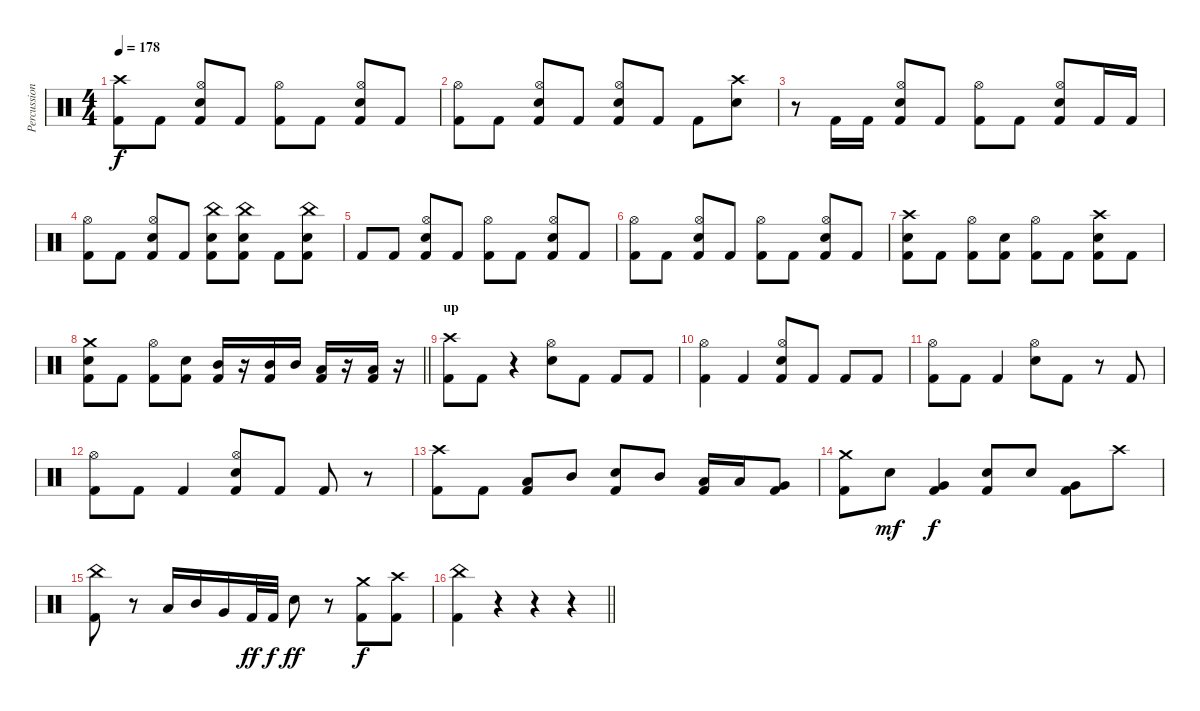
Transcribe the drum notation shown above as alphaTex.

\track ("Percussion" "Percussion") {instrument percussion}
\staff {score}
\articulation defaults
\ts (4 4)
\tempo 178
\clef neutral
\ks c
("Crash high (hit)" "Kick (hit) 2").8{dy f} "Kick (hit) 2".8 ("Hi-Hat (open)" "Electric Snare (hit)" "Kick (hit) 2").8 "Kick (hit) 2".8 ("Hi-Hat (open)" "Kick (hit) 2").8 "Kick (hit) 2".8 ("Hi-Hat (open)" "Electric Snare (hit)" "Kick (hit) 2").8 "Kick (hit) 2".8 |
("Hi-Hat (open)" "Kick (hit) 2").8 "Kick (hit) 2".8 ("Hi-Hat (open)" "Electric Snare (hit)" "Kick (hit) 2").8 "Kick (hit) 2".8 ("Hi-Hat (open)" "Electric Snare (hit)" "Kick (hit) 2").8 "Kick (hit) 2".8 "Kick (hit) 2".8 ("Crash high (hit)" "Electric Snare (hit)").8 |
r.8 "Kick (hit) 2".16{beam Down} "Kick (hit) 2".16{beam Down} ("Hi-Hat (open)" "Electric Snare (hit)" "Kick (hit) 2").8 "Kick (hit) 2".8 ("Hi-Hat (open)" "Kick (hit) 2").8 "Kick (hit) 2".8 ("Hi-Hat (open)" "Electric Snare (hit)" "Kick (hit) 2").8 "Kick (hit) 2".16 "Kick (hit) 2".16 |
("Hi-Hat (open)" "Kick (hit) 2").8 "Kick (hit) 2".8 ("Hi-Hat (open)" "Electric Snare (hit)" "Kick (hit) 2").8 "Kick (hit) 2".8 ("China (hit)" "Electric Snare (hit)" "Kick (hit) 2").8 ("China (hit)" "Electric Snare (hit)" "Kick (hit) 2").8 "Kick (hit) 2".8 ("China (hit)" "Electric Snare (hit)" "Kick (hit) 2").8 |
"Kick (hit) 2".8 "Kick (hit) 2".8 ("Hi-Hat (open)" "Electric Snare (hit)" "Kick (hit) 2").8 "Kick (hit) 2".8 ("Hi-Hat (open)" "Kick (hit) 2").8 "Kick (hit) 2".8 ("Hi-Hat (open)" "Electric Snare (hit)" "Kick (hit) 2").8 "Kick (hit) 2".8 |
("Hi-Hat (open)" "Kick (hit) 2").8 "Kick (hit) 2".8 ("Hi-Hat (open)" "Electric Snare (hit)" "Kick (hit) 2").8 "Kick (hit) 2".8 ("Hi-Hat (open)" "Kick (hit) 2").8 "Kick (hit) 2".8 ("Hi-Hat (open)" "Electric Snare (hit)" "Kick (hit) 2").8 "Kick (hit) 2".8 |
("Crash high (hit)" "Electric Snare (hit)" "Kick (hit) 2").8 "Kick (hit) 2".8 ("Hi-Hat (open)" "Kick (hit) 2").8 ("Electric Snare (hit)" "Kick (hit) 2").8 ("Hi-Hat (open)" "Kick (hit) 2").8 "Kick (hit) 2".8 ("Crash high (hit)" "Electric Snare (hit)" "Kick (hit) 2").8 "Kick (hit) 2".8 |
\barLineRight lightlight
("Crash medium (hit)" "Electric Snare (hit)" "Kick (hit) 2").8 "Kick (hit) 2".8 ("Hi-Hat (open)" "Kick (hit) 2").8 ("Electric Snare (hit)" "Kick (hit) 2").8 ("Mid Tom (hit)" "Kick (hit) 2").16 r.16 ("Mid Tom (hit)" "Kick (hit) 2").16 "Mid Tom (hit)".16 ("Low Tom (hit)" "Kick (hit) 2").16 r.16 ("Low Tom (hit)" "Kick (hit) 2").16 r.16 |
\section ("" "up")
("Crash high (hit)" "Kick (hit) 2").8 "Kick (hit) 2".8 r.4 ("Hi-Hat (open)" "Electric Snare (hit)").8 "Kick (hit) 2".8 "Kick (hit) 2".8 "Kick (hit) 2".8 |
("Hi-Hat (open)" "Kick (hit) 2").4 "Kick (hit) 2".4 ("Hi-Hat (open)" "Electric Snare (hit)" "Kick (hit) 2").8 "Kick (hit) 2".8 "Kick (hit) 2".8 "Kick (hit) 2".8 |
("Hi-Hat (open)" "Kick (hit) 2").8 "Kick (hit) 2".8 "Kick (hit) 2".4 ("Hi-Hat (open)" "Electric Snare (hit)").8 "Kick (hit) 2".8 r.8 "Kick (hit) 2".8 |
("Hi-Hat (open)" "Kick (hit) 2").8 "Kick (hit) 2".8 "Kick (hit) 2".4 ("Hi-Hat (open)" "Electric Snare (hit)" "Kick (hit) 2").8 "Kick (hit) 2".8 "Kick (hit) 2".8 r.8 |
("Crash high (hit)" "Kick (hit) 2").8 "Kick (hit) 2".8 ("Low Tom (hit)" "Kick (hit) 2").8 "Mid Tom (hit)".8 ("Electric Snare (hit)" "Kick (hit) 2").8 "Mid Tom (hit)".8 ("Low Tom (hit)" "Kick (hit) 2").16 "Low Tom (hit)".16 ("Very Low Tom (hit)" "Kick (hit) 2").8 |
("Crash medium (hit)" "Kick (hit) 2").8 "Electric Snare (hit)".8{dy mf} ("Very Low Tom (hit)" "Kick (hit) 2").4{dy f} ("Electric Snare (hit)" "Kick (hit) 2").8 "Electric Snare (hit)".8 ("Very Low Tom (hit)" "Kick (hit) 2").8 "Crash high (hit)".8 |
("China (hit)" "Kick (hit) 2").8 r.8 "Low Tom (hit)".16 "Mid Tom (hit)".16 "Very Low Tom (hit)".16 "Kick (hit) 2".32{dy ff} "Kick (hit) 2".32{dy f} "Electric Snare (hit)".8{dy ff} r.8 ("Crash medium (hit)" "Kick (hit) 2").8{dy f} ("Crash high (hit)" "Kick (hit) 2").8 |
\barLineRight lightlight
("China (hit)" "Kick (hit) 2").4 r.4 r.4 r.4
